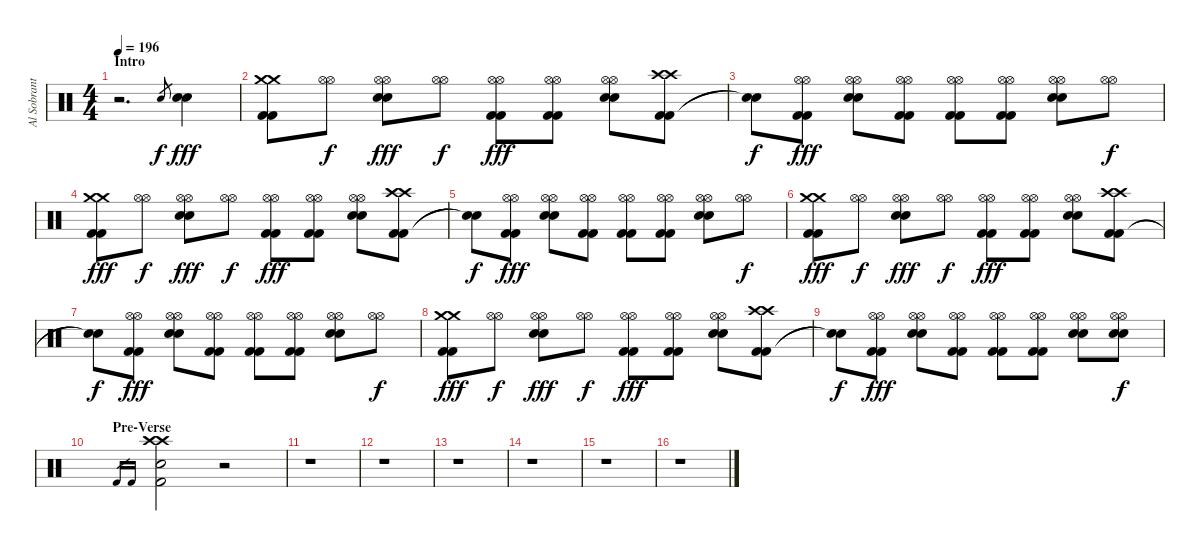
\track ("Al Sobrante (Drums)" "Al Sobrant") {instrument percussion}
\staff {score}
\articulation defaults
\ts (4 4)
\section ("" "Intro")
\tempo 196
\clef neutral
\ks c
r.2{d dy f} "Snare (hit) 2".8{gr} ("Snare (hit) 2" "Electric Snare (hit)").4{dy fff} |
("Kick (hit) 2" "Kick (hit) 2" "Crash medium (hit)" "Crash medium (hit)").8 ("Hi-Hat (open)" "Hi-Hat (open)").8{dy f} ("Electric Snare (hit)" "Electric Snare (hit)" "Hi-Hat (open)" "Hi-Hat (open)").8{dy fff} ("Hi-Hat (open)" "Hi-Hat (open)").8{dy f} ("Kick (hit) 2" "Kick (hit) 2" "Hi-Hat (open)" "Hi-Hat (open)").8{dy fff} ("Kick (hit) 2" "Kick (hit) 2" "Hi-Hat (open)" "Hi-Hat (open)").8 ("Electric Snare (hit)" "Electric Snare (hit)" "Hi-Hat (open)" "Hi-Hat (open)").8 ("Kick (hit) 2" "Kick (hit) 2" "Crash high (hit)" "Crash high (hit)").8 |
("Snare (hit)"{t} "Snare (hit)"{t}).8{dy f} ("Kick (hit) 2" "Kick (hit) 2" "Hi-Hat (open)" "Hi-Hat (open)").8{dy fff} ("Electric Snare (hit)" "Electric Snare (hit)" "Hi-Hat (open)" "Hi-Hat (open)").8 ("Kick (hit) 2" "Kick (hit) 2" "Hi-Hat (open)" "Hi-Hat (open)").8 ("Kick (hit) 2" "Kick (hit) 2" "Hi-Hat (open)" "Hi-Hat (open)").8 ("Kick (hit) 2" "Kick (hit) 2" "Hi-Hat (open)" "Hi-Hat (open)").8 ("Electric Snare (hit)" "Electric Snare (hit)" "Hi-Hat (open)" "Hi-Hat (open)").8 ("Hi-Hat (open)" "Hi-Hat (open)").8{dy f} |
("Kick (hit) 2" "Kick (hit) 2" "Crash medium (hit)" "Crash medium (hit)").8{dy fff} ("Hi-Hat (open)" "Hi-Hat (open)").8{dy f} ("Electric Snare (hit)" "Electric Snare (hit)" "Hi-Hat (open)" "Hi-Hat (open)").8{dy fff} ("Hi-Hat (open)" "Hi-Hat (open)").8{dy f} ("Kick (hit) 2" "Kick (hit) 2" "Hi-Hat (open)" "Hi-Hat (open)").8{dy fff} ("Kick (hit) 2" "Kick (hit) 2" "Hi-Hat (open)" "Hi-Hat (open)").8 ("Electric Snare (hit)" "Electric Snare (hit)" "Hi-Hat (open)" "Hi-Hat (open)").8 ("Kick (hit) 2" "Kick (hit) 2" "Crash high (hit)" "Crash high (hit)").8 |
("Snare (hit)"{t} "Snare (hit)"{t}).8{dy f} ("Kick (hit) 2" "Kick (hit) 2" "Hi-Hat (open)" "Hi-Hat (open)").8{dy fff} ("Electric Snare (hit)" "Electric Snare (hit)" "Hi-Hat (open)" "Hi-Hat (open)").8 ("Kick (hit) 2" "Kick (hit) 2" "Hi-Hat (open)" "Hi-Hat (open)").8 ("Kick (hit) 2" "Kick (hit) 2" "Hi-Hat (open)" "Hi-Hat (open)").8 ("Kick (hit) 2" "Kick (hit) 2" "Hi-Hat (open)" "Hi-Hat (open)").8 ("Electric Snare (hit)" "Electric Snare (hit)" "Hi-Hat (open)" "Hi-Hat (open)").8 ("Hi-Hat (open)" "Hi-Hat (open)").8{dy f} |
("Kick (hit) 2" "Kick (hit) 2" "Crash medium (hit)" "Crash medium (hit)").8{dy fff} ("Hi-Hat (open)" "Hi-Hat (open)").8{dy f} ("Electric Snare (hit)" "Electric Snare (hit)" "Hi-Hat (open)" "Hi-Hat (open)").8{dy fff} ("Hi-Hat (open)" "Hi-Hat (open)").8{dy f} ("Kick (hit) 2" "Kick (hit) 2" "Hi-Hat (open)" "Hi-Hat (open)").8{dy fff} ("Kick (hit) 2" "Kick (hit) 2" "Hi-Hat (open)" "Hi-Hat (open)").8 ("Electric Snare (hit)" "Electric Snare (hit)" "Hi-Hat (open)" "Hi-Hat (open)").8 ("Kick (hit) 2" "Kick (hit) 2" "Crash high (hit)" "Crash high (hit)").8 |
("Snare (hit)"{t} "Snare (hit)"{t}).8{dy f} ("Kick (hit) 2" "Kick (hit) 2" "Hi-Hat (open)" "Hi-Hat (open)").8{dy fff} ("Electric Snare (hit)" "Electric Snare (hit)" "Hi-Hat (open)" "Hi-Hat (open)").8 ("Kick (hit) 2" "Kick (hit) 2" "Hi-Hat (open)" "Hi-Hat (open)").8 ("Kick (hit) 2" "Kick (hit) 2" "Hi-Hat (open)" "Hi-Hat (open)").8 ("Kick (hit) 2" "Kick (hit) 2" "Hi-Hat (open)" "Hi-Hat (open)").8 ("Electric Snare (hit)" "Electric Snare (hit)" "Hi-Hat (open)" "Hi-Hat (open)").8 ("Hi-Hat (open)" "Hi-Hat (open)").8{dy f} |
("Kick (hit) 2" "Kick (hit) 2" "Crash medium (hit)" "Crash medium (hit)").8{dy fff} ("Hi-Hat (open)" "Hi-Hat (open)").8{dy f} ("Electric Snare (hit)" "Electric Snare (hit)" "Hi-Hat (open)" "Hi-Hat (open)").8{dy fff} ("Hi-Hat (open)" "Hi-Hat (open)").8{dy f} ("Kick (hit) 2" "Kick (hit) 2" "Hi-Hat (open)" "Hi-Hat (open)").8{dy fff} ("Kick (hit) 2" "Kick (hit) 2" "Hi-Hat (open)" "Hi-Hat (open)").8 ("Electric Snare (hit)" "Electric Snare (hit)" "Hi-Hat (open)" "Hi-Hat (open)").8 ("Kick (hit) 2" "Kick (hit) 2" "Crash high (hit)" "Crash high (hit)").8 |
("Snare (hit)"{t} "Snare (hit)"{t}).8{dy f} ("Kick (hit) 2" "Kick (hit) 2" "Hi-Hat (open)" "Hi-Hat (open)").8{dy fff} ("Electric Snare (hit)" "Electric Snare (hit)" "Hi-Hat (open)" "Hi-Hat (open)").8 ("Kick (hit) 2" "Kick (hit) 2" "Hi-Hat (open)" "Hi-Hat (open)").8 ("Kick (hit) 2" "Kick (hit) 2" "Hi-Hat (open)" "Hi-Hat (open)").8 ("Kick (hit) 2" "Kick (hit) 2" "Hi-Hat (open)" "Hi-Hat (open)").8 ("Electric Snare (hit)" "Electric Snare (hit)" "Hi-Hat (open)" "Hi-Hat (open)").8 ("Electric Snare (hit)" "Electric Snare (hit)" "Hi-Hat (open)" "Hi-Hat (open)").8{dy f} |
\section ("" "Pre-Verse")
"Kick (hit) 2".16{gr} "Kick (hit) 2".16{gr} ("Electric Snare (hit)" "Kick (hit) 2" "Crash high (hit)" "Crash high (hit)").2 r.2 |
r.1 |
r.1 |
r.1 |
r.1 |
r.1 |
r.1
